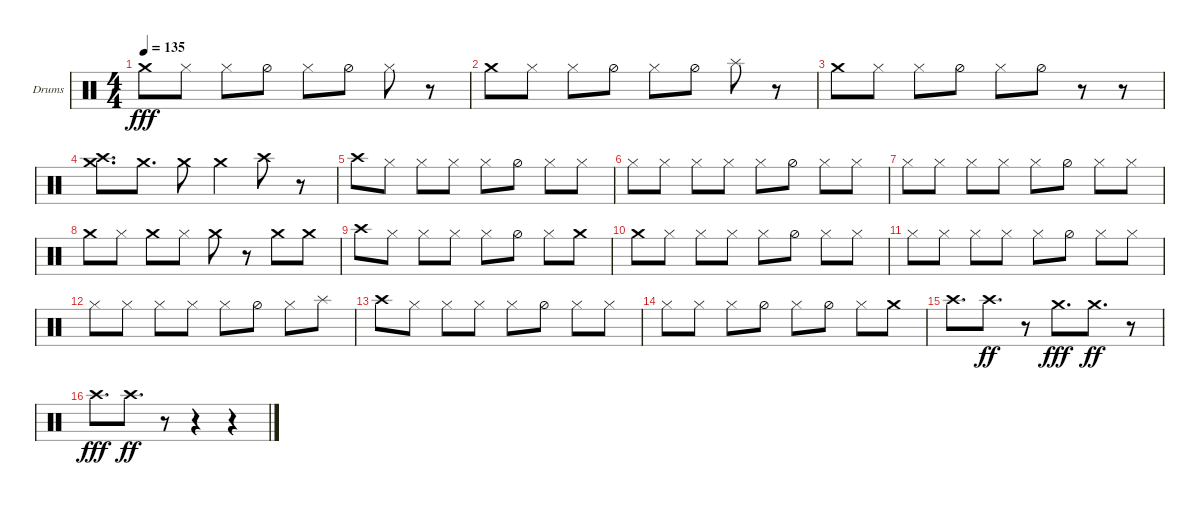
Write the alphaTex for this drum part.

\defaultSystemsLayout 4
\bracketExtendMode groupsimilarinstruments
\firstSystemTrackNameOrientation horizontal
\otherSystemsTrackNameOrientation horizontal
\track ("Helders" "Drums") {instrument percussion}
\staff {score}
\articulation defaults
\ts (4 4)
\tempo 135
\clef neutral
\ks c "Crash medium (hit)".8{dy fff} "Hi-Hat (closed)".8 "Hi-Hat (closed)".8 "Hi-Hat (half)".8 "Hi-Hat (closed)".8 "Hi-Hat (half)".8 "Hi-Hat (closed)".8
r.8 |
"Crash medium (hit)".8 "Hi-Hat (closed)".8 "Hi-Hat (closed)".8 "Hi-Hat (half)".8 "Hi-Hat (closed)".8 "Hi-Hat (half)".8 "Splash (hit)".8 r.8 |
"Crash medium (hit)".8 "Hi-Hat (closed)".8 "Hi-Hat (closed)".8 "Hi-Hat (half)".8 "Hi-Hat (closed)".8 "Hi-Hat (half)".8 r.8 r.8 |
("Crash high (hit)" "Crash medium (hit)").8{d} "Crash medium (hit)".8{d} "Crash medium (hit)".8 "Crash medium (hit)".4 "Crash high (hit)".8 r.8 |
"Crash high (hit)".8 "Hi-Hat (closed)".8 "Hi-Hat (closed)".8 "Hi-Hat (closed)".8 "Hi-Hat (closed)".8 "Hi-Hat (half)".8 "Hi-Hat (closed)".8 "Hi-Hat (closed)".8 |
"Hi-Hat (closed)".8 "Hi-Hat (closed)".8 "Hi-Hat (closed)".8 "Hi-Hat (closed)".8 "Hi-Hat (closed)".8 "Hi-Hat (half)".8 "Hi-Hat (closed)".8 "Hi-Hat (closed)".8 |
"Hi-Hat (closed)".8 "Hi-Hat (closed)".8 "Hi-Hat (closed)".8 "Hi-Hat (closed)".8 "Hi-Hat (closed)".8 "Hi-Hat (half)".8 "Hi-Hat (closed)".8 "Hi-Hat (closed)".8 |
"Crash medium (hit)".8 "Hi-Hat (closed)".8 "Crash medium (hit)".8 "Hi-Hat (closed)".8 "Crash medium (hit)".8 r.8 "Crash medium (hit)".8 "Crash medium (hit)".8 |
"Crash high (hit)".8 "Hi-Hat (closed)".8 "Hi-Hat (closed)".8 "Hi-Hat (closed)".8 "Hi-Hat (closed)".8 "Hi-Hat (half)".8 "Hi-Hat (closed)".8 "Crash medium (hit)".8 |
"Crash medium (hit)".8 "Hi-Hat (closed)".8 "Hi-Hat (closed)".8 "Hi-Hat (closed)".8 "Hi-Hat (closed)".8 "Hi-Hat (half)".8 "Hi-Hat (closed)".8 "Hi-Hat (closed)".8 |
"Hi-Hat (closed)".8 "Hi-Hat (closed)".8 "Hi-Hat (closed)".8 "Hi-Hat (closed)".8 "Hi-Hat (closed)".8 "Hi-Hat (half)".8 "Hi-Hat (closed)".8 "Hi-Hat (closed)".8 |
"Hi-Hat (closed)".8 "Hi-Hat (closed)".8 "Hi-Hat (closed)".8 "Hi-Hat (closed)".8 "Hi-Hat (closed)".8 "Hi-Hat (half)".8 "Hi-Hat (closed)".8 "Splash (hit)".8 |
"Crash high (hit)".8 "Hi-Hat (closed)".8 "Hi-Hat (closed)".8 "Hi-Hat (closed)".8 "Hi-Hat (closed)".8 "Hi-Hat (half)".8 "Hi-Hat (closed)".8 "Hi-Hat (closed)".8 |
"Hi-Hat (closed)".8 "Hi-Hat (closed)".8 "Hi-Hat (closed)".8 "Hi-Hat (half)".8 "Hi-Hat (closed)".8 "Hi-Hat (half)".8 "Hi-Hat (closed)".8 "Crash medium (hit)".8 |
"Crash high (hit)".8{d} "Crash high (hit)".8{d dy ff} r.8 "Crash medium (hit)".8{d dy fff} "Crash medium (hit)".8{d dy ff} r.8 |
"Crash high (hit)".8{d dy fff} "Crash high (hit)".8{d dy ff} r.8 r.4 r.4
